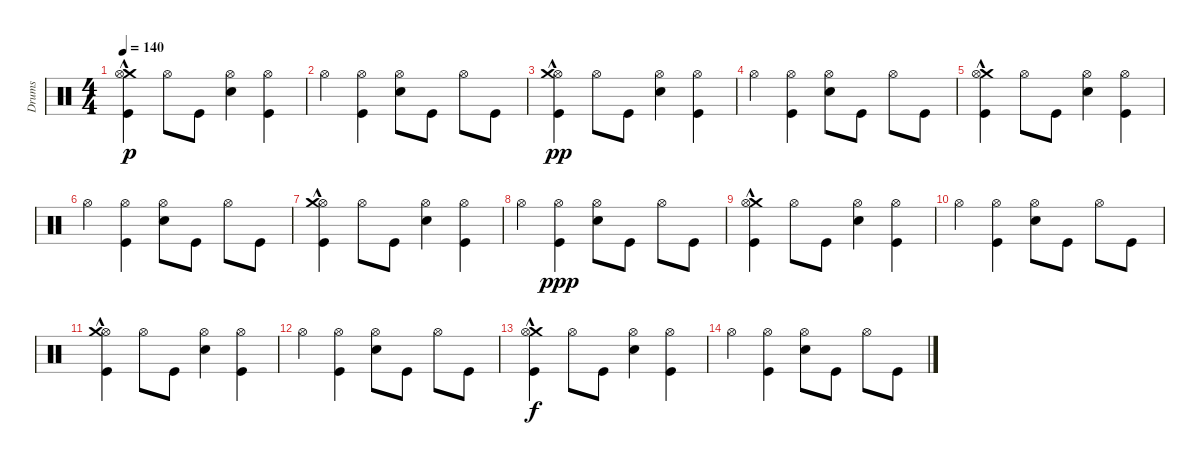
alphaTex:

\track ("Drums" "Drums") {instrument percussion}
\staff {score}
\articulation defaults
\ts (4 4)
\tempo 140
\clef neutral
\ks c
("Crash medium (hit)"{hac} "Hi-Hat (open)" "Kick (hit)").4{dy p} "Hi-Hat (open)".8 "Kick (hit)".8 ("Hi-Hat (open)" "Electric Snare (hit)").4 ("Hi-Hat (open)" "Kick (hit)").4 |
"Hi-Hat (open)".4 ("Hi-Hat (open)" "Kick (hit)").4 ("Hi-Hat (open)" "Electric Snare (hit)").8 "Kick (hit)".8 "Hi-Hat (open)".8 "Kick (hit)".8 |
("Kick (hit)" "Hi-Hat (open)" "Crash medium (hit)"{hac}).4{dy pp} "Hi-Hat (open)".8 "Kick (hit)".8 ("Electric Snare (hit)" "Hi-Hat (open)").4 ("Kick (hit)" "Hi-Hat (open)").4 |
"Hi-Hat (open)".4 ("Kick (hit)" "Hi-Hat (open)").4 ("Electric Snare (hit)" "Hi-Hat (open)").8 "Kick (hit)".8 "Hi-Hat (open)".8 "Kick (hit)".8 |
("Crash medium (hit)"{hac} "Hi-Hat (open)" "Kick (hit)").4 "Hi-Hat (open)".8 "Kick (hit)".8 ("Hi-Hat (open)" "Electric Snare (hit)").4 ("Hi-Hat (open)" "Kick (hit)").4 |
"Hi-Hat (open)".4 ("Hi-Hat (open)" "Kick (hit)").4 ("Hi-Hat (open)" "Electric Snare (hit)").8 "Kick (hit)".8 "Hi-Hat (open)".8 "Kick (hit)".8 |
("Kick (hit)" "Hi-Hat (open)" "Crash medium (hit)"{hac}).4 "Hi-Hat (open)".8 "Kick (hit)".8 ("Electric Snare (hit)" "Hi-Hat (open)").4 ("Kick (hit)" "Hi-Hat (open)").4 |
"Hi-Hat (open)".4 ("Kick (hit)" "Hi-Hat (open)").4{dy ppp} ("Electric Snare (hit)" "Hi-Hat (open)").8 "Kick (hit)".8 "Hi-Hat (open)".8 "Kick (hit)".8 |
("Crash medium (hit)"{hac} "Hi-Hat (open)" "Kick (hit)").4 "Hi-Hat (open)".8 "Kick (hit)".8 ("Hi-Hat (open)" "Electric Snare (hit)").4 ("Hi-Hat (open)" "Kick (hit)").4 |
"Hi-Hat (open)".4 ("Hi-Hat (open)" "Kick (hit)").4 ("Hi-Hat (open)" "Electric Snare (hit)").8 "Kick (hit)".8 "Hi-Hat (open)".8 "Kick (hit)".8 |
("Kick (hit)" "Hi-Hat (open)" "Crash medium (hit)"{hac}).4 "Hi-Hat (open)".8 "Kick (hit)".8 ("Electric Snare (hit)" "Hi-Hat (open)").4 ("Kick (hit)" "Hi-Hat (open)").4 |
"Hi-Hat (open)".4 ("Kick (hit)" "Hi-Hat (open)").4 ("Electric Snare (hit)" "Hi-Hat (open)").8 "Kick (hit)".8 "Hi-Hat (open)".8 "Kick (hit)".8 |
("Crash medium (hit)"{hac} "Hi-Hat (open)" "Kick (hit)").4{dy f} "Hi-Hat (open)".8 "Kick (hit)".8 ("Hi-Hat (open)" "Electric Snare (hit)").4 ("Hi-Hat (open)" "Kick (hit)").4 |
"Hi-Hat (open)".4 ("Hi-Hat (open)" "Kick (hit)").4 ("Hi-Hat (open)" "Electric Snare (hit)").8 "Kick (hit)".8 "Hi-Hat (open)".8 "Kick (hit)".8
